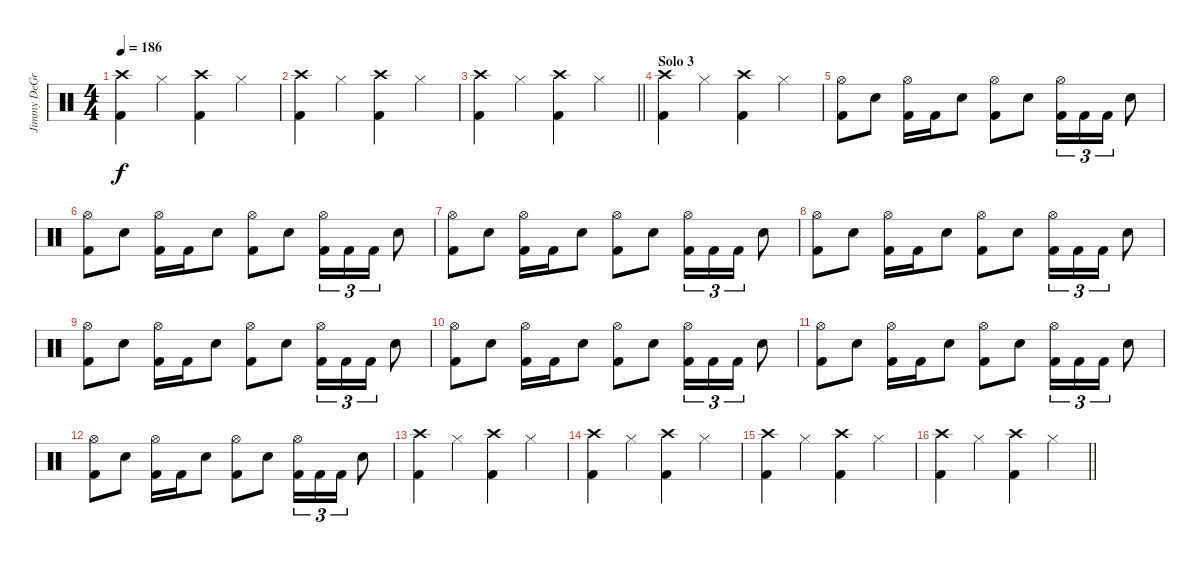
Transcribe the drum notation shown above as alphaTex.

\track ("Jimmy DeGrasso" "Jimmy DeGr") {instrument percussion}
\staff {score}
\articulation defaults
\ts (4 4)
\tempo 186
\clef neutral
\ks c
("Crash high (hit)" "Kick (hit) 2").4{dy f} "Hi-Hat (closed)".4 ("Crash high (hit)" "Kick (hit) 2").4 "Hi-Hat (closed)".4 |
("Crash high (hit)" "Kick (hit) 2").4 "Hi-Hat (closed)".4 ("Crash high (hit)" "Kick (hit) 2").4 "Hi-Hat (closed)".4 |
\barLineRight lightlight
("Crash high (hit)" "Kick (hit) 2").4 "Hi-Hat (closed)".4 ("Crash high (hit)" "Kick (hit) 2").4 "Hi-Hat (closed)".4 |
\section ("" "Solo 3")
("Crash high (hit)" "Kick (hit) 2").4 "Hi-Hat (closed)".4 ("Crash high (hit)" "Kick (hit) 2").4 "Hi-Hat (closed)".4 |
("Hi-Hat (open)" "Kick (hit) 2").8 "Electric Snare (hit)".8 ("Hi-Hat (open)" "Kick (hit) 2").16 "Kick (hit) 2".16 "Electric Snare (hit)".8 ("Hi-Hat (open)" "Kick (hit) 2").8 "Electric Snare (hit)".8 ("Hi-Hat (open)" "Kick (hit) 2").16{tu (3 2)} "Kick (hit) 2".16{tu (3 2)} "Kick (hit) 2".16{tu (3 2)} "Electric Snare (hit)".8 |
("Hi-Hat (open)" "Kick (hit) 2").8 "Electric Snare (hit)".8 ("Hi-Hat (open)" "Kick (hit) 2").16 "Kick (hit) 2".16 "Electric Snare (hit)".8 ("Hi-Hat (open)" "Kick (hit) 2").8 "Electric Snare (hit)".8 ("Hi-Hat (open)" "Kick (hit) 2").16{tu (3 2)} "Kick (hit) 2".16{tu (3 2)} "Kick (hit) 2".16{tu (3 2)} "Electric Snare (hit)".8 |
("Hi-Hat (open)" "Kick (hit) 2").8 "Electric Snare (hit)".8 ("Hi-Hat (open)" "Kick (hit) 2").16 "Kick (hit) 2".16 "Electric Snare (hit)".8 ("Hi-Hat (open)" "Kick (hit) 2").8 "Electric Snare (hit)".8 ("Hi-Hat (open)" "Kick (hit) 2").16{tu (3 2)} "Kick (hit) 2".16{tu (3 2)} "Kick (hit) 2".16{tu (3 2)} "Electric Snare (hit)".8 |
("Hi-Hat (open)" "Kick (hit) 2").8 "Electric Snare (hit)".8 ("Hi-Hat (open)" "Kick (hit) 2").16 "Kick (hit) 2".16 "Electric Snare (hit)".8 ("Hi-Hat (open)" "Kick (hit) 2").8 "Electric Snare (hit)".8 ("Hi-Hat (open)" "Kick (hit) 2").16{tu (3 2)} "Kick (hit) 2".16{tu (3 2)} "Kick (hit) 2".16{tu (3 2)} "Electric Snare (hit)".8 |
("Hi-Hat (open)" "Kick (hit) 2").8 "Electric Snare (hit)".8 ("Hi-Hat (open)" "Kick (hit) 2").16 "Kick (hit) 2".16 "Electric Snare (hit)".8 ("Hi-Hat (open)" "Kick (hit) 2").8 "Electric Snare (hit)".8 ("Hi-Hat (open)" "Kick (hit) 2").16{tu (3 2)} "Kick (hit) 2".16{tu (3 2)} "Kick (hit) 2".16{tu (3 2)} "Electric Snare (hit)".8 |
("Hi-Hat (open)" "Kick (hit) 2").8 "Electric Snare (hit)".8 ("Hi-Hat (open)" "Kick (hit) 2").16 "Kick (hit) 2".16 "Electric Snare (hit)".8 ("Hi-Hat (open)" "Kick (hit) 2").8 "Electric Snare (hit)".8 ("Hi-Hat (open)" "Kick (hit) 2").16{tu (3 2)} "Kick (hit) 2".16{tu (3 2)} "Kick (hit) 2".16{tu (3 2)} "Electric Snare (hit)".8 |
("Hi-Hat (open)" "Kick (hit) 2").8 "Electric Snare (hit)".8 ("Hi-Hat (open)" "Kick (hit) 2").16 "Kick (hit) 2".16 "Electric Snare (hit)".8 ("Hi-Hat (open)" "Kick (hit) 2").8 "Electric Snare (hit)".8 ("Hi-Hat (open)" "Kick (hit) 2").16{tu (3 2)} "Kick (hit) 2".16{tu (3 2)} "Kick (hit) 2".16{tu (3 2)} "Electric Snare (hit)".8 |
("Hi-Hat (open)" "Kick (hit) 2").8 "Electric Snare (hit)".8 ("Hi-Hat (open)" "Kick (hit) 2").16 "Kick (hit) 2".16 "Electric Snare (hit)".8 ("Hi-Hat (open)" "Kick (hit) 2").8 "Electric Snare (hit)".8 ("Hi-Hat (open)" "Kick (hit) 2").16{tu (3 2)} "Kick (hit) 2".16{tu (3 2)} "Kick (hit) 2".16{tu (3 2)} "Electric Snare (hit)".8 |
("Crash high (hit)" "Kick (hit) 2").4 "Hi-Hat (closed)".4 ("Crash high (hit)" "Kick (hit) 2").4 "Hi-Hat (closed)".4 |
("Crash high (hit)" "Kick (hit) 2").4 "Hi-Hat (closed)".4 ("Crash high (hit)" "Kick (hit) 2").4 "Hi-Hat (closed)".4 |
("Crash high (hit)" "Kick (hit) 2").4 "Hi-Hat (closed)".4 ("Crash high (hit)" "Kick (hit) 2").4 "Hi-Hat (closed)".4 |
\barLineRight lightlight
("Crash high (hit)" "Kick (hit) 2").4 "Hi-Hat (closed)".4 ("Crash high (hit)" "Kick (hit) 2").4 "Hi-Hat (closed)".4
